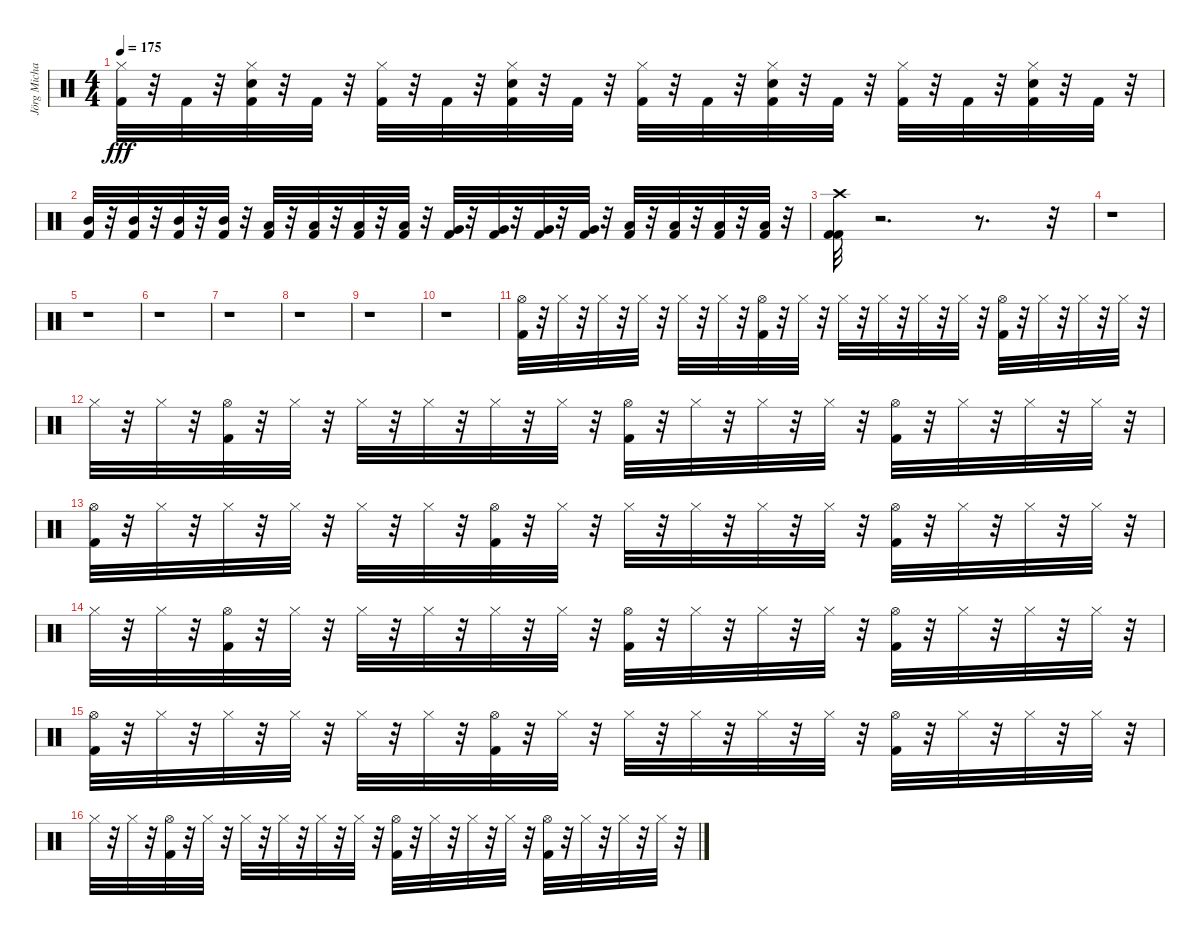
\track ("Jörg Michael " "Jörg Micha") {instrument percussion}
\staff {score}
\articulation defaults
\ts (4 4)
\tempo 175
\clef neutral
\ks c
("Hi-Hat (closed)" "Kick (hit) 2").32{dy fff} r.32 "Kick (hit) 2".32 r.32 ("Hi-Hat (closed)" "Snare (hit) 2" "Kick (hit) 2").32 r.32 "Kick (hit) 2".32 r.32 ("Hi-Hat (closed)" "Kick (hit) 2").32 r.32 "Kick (hit) 2".32 r.32 ("Hi-Hat (closed)" "Snare (hit) 2" "Kick (hit) 2").32 r.32 "Kick (hit) 2".32 r.32 ("Hi-Hat (closed)" "Kick (hit) 2").32 r.32 "Kick (hit) 2".32 r.32 ("Hi-Hat (closed)" "Snare (hit) 2" "Kick (hit) 2").32 r.32 "Kick (hit) 2".32 r.32 ("Hi-Hat (closed)" "Kick (hit) 2").32 r.32 "Kick (hit) 2".32 r.32 ("Hi-Hat (closed)" "Snare (hit) 2" "Kick (hit) 2").32 r.32 "Kick (hit) 2".32 r.32 |
("Mid Tom (hit)" "Kick (hit) 2").32 r.32 ("Mid Tom (hit)" "Kick (hit) 2").32 r.32 ("Mid Tom (hit)" "Kick (hit) 2").32 r.32 ("Mid Tom (hit)" "Kick (hit) 2").32 r.32 ("Low Tom (hit)" "Kick (hit) 2").32 r.32 ("Low Tom (hit)" "Kick (hit) 2").32 r.32 ("Low Tom (hit)" "Kick (hit) 2").32 r.32 ("Low Tom (hit)" "Kick (hit) 2").32 r.32 ("Very Low Tom (hit)" "Kick (hit) 2").32 r.32 ("Very Low Tom (hit)" "Kick (hit) 2").32 r.32 ("Very Low Tom (hit)" "Kick (hit) 2").32 r.32 ("Very Low Tom (hit)" "Kick (hit) 2").32 r.32 ("Low Floor Tom (hit)" "Kick (hit) 2").32 r.32 ("Low Floor Tom (hit)" "Kick (hit) 2").32 r.32 ("Low Floor Tom (hit)" "Kick (hit) 2").32 r.32 ("Low Floor Tom (hit)" "Kick (hit) 2").32 r.32 |
("Crash high (hit)" "Kick (hit) 2" "Kick (hit) 2").32 r.2{d} r.8{d} r.32 |
r.1 |
r.1 |
r.1 |
r.1 |
r.1 |
r.1 |
r.1 |
("Hi-Hat (open)" "Kick (hit) 2").32 r.32 "Hi-Hat (closed)".32 r.32 "Hi-Hat (closed)".32 r.32 "Hi-Hat (closed)".32 r.32 "Hi-Hat (closed)".32 r.32 "Hi-Hat (closed)".32 r.32 ("Hi-Hat (open)" "Kick (hit) 2").32 r.32 "Hi-Hat (closed)".32 r.32 "Hi-Hat (closed)".32 r.32 "Hi-Hat (closed)".32 r.32 "Hi-Hat (closed)".32 r.32 "Hi-Hat (closed)".32 r.32 ("Hi-Hat (open)" "Kick (hit) 2").32 r.32 "Hi-Hat (closed)".32 r.32 "Hi-Hat (closed)".32 r.32 "Hi-Hat (closed)".32 r.32 |
"Hi-Hat (closed)".32 r.32 "Hi-Hat (closed)".32 r.32 ("Hi-Hat (open)" "Kick (hit) 2").32 r.32 "Hi-Hat (closed)".32 r.32 "Hi-Hat (closed)".32 r.32 "Hi-Hat (closed)".32 r.32 "Hi-Hat (closed)".32 r.32 "Hi-Hat (closed)".32 r.32 ("Hi-Hat (open)" "Kick (hit) 2").32 r.32 "Hi-Hat (closed)".32 r.32 "Hi-Hat (closed)".32 r.32 "Hi-Hat (closed)".32 r.32 ("Hi-Hat (open)" "Kick (hit) 2").32 r.32 "Hi-Hat (closed)".32 r.32 "Hi-Hat (closed)".32 r.32 "Hi-Hat (closed)".32 r.32 |
("Hi-Hat (open)" "Kick (hit) 2").32 r.32 "Hi-Hat (closed)".32 r.32 "Hi-Hat (closed)".32 r.32 "Hi-Hat (closed)".32 r.32 "Hi-Hat (closed)".32 r.32 "Hi-Hat (closed)".32 r.32 ("Hi-Hat (open)" "Kick (hit) 2").32 r.32 "Hi-Hat (closed)".32 r.32 "Hi-Hat (closed)".32 r.32 "Hi-Hat (closed)".32 r.32 "Hi-Hat (closed)".32 r.32 "Hi-Hat (closed)".32 r.32 ("Hi-Hat (open)" "Kick (hit) 2").32 r.32 "Hi-Hat (closed)".32 r.32 "Hi-Hat (closed)".32 r.32 "Hi-Hat (closed)".32 r.32 |
"Hi-Hat (closed)".32 r.32 "Hi-Hat (closed)".32 r.32 ("Hi-Hat (open)" "Kick (hit) 2").32 r.32 "Hi-Hat (closed)".32 r.32 "Hi-Hat (closed)".32 r.32 "Hi-Hat (closed)".32 r.32 "Hi-Hat (closed)".32 r.32 "Hi-Hat (closed)".32 r.32 ("Hi-Hat (open)" "Kick (hit) 2").32 r.32 "Hi-Hat (closed)".32 r.32 "Hi-Hat (closed)".32 r.32 "Hi-Hat (closed)".32 r.32 ("Hi-Hat (open)" "Kick (hit) 2").32 r.32 "Hi-Hat (closed)".32 r.32 "Hi-Hat (closed)".32 r.32 "Hi-Hat (closed)".32 r.32 |
("Hi-Hat (open)" "Kick (hit) 2").32 r.32 "Hi-Hat (closed)".32 r.32 "Hi-Hat (closed)".32 r.32 "Hi-Hat (closed)".32 r.32 "Hi-Hat (closed)".32 r.32 "Hi-Hat (closed)".32 r.32 ("Hi-Hat (open)" "Kick (hit) 2").32 r.32 "Hi-Hat (closed)".32 r.32 "Hi-Hat (closed)".32 r.32 "Hi-Hat (closed)".32 r.32 "Hi-Hat (closed)".32 r.32 "Hi-Hat (closed)".32 r.32 ("Hi-Hat (open)" "Kick (hit) 2").32 r.32 "Hi-Hat (closed)".32 r.32 "Hi-Hat (closed)".32 r.32 "Hi-Hat (closed)".32 r.32 |
"Hi-Hat (closed)".32 r.32 "Hi-Hat (closed)".32 r.32 ("Hi-Hat (open)" "Kick (hit) 2").32 r.32 "Hi-Hat (closed)".32 r.32 "Hi-Hat (closed)".32 r.32 "Hi-Hat (closed)".32 r.32 "Hi-Hat (closed)".32 r.32 "Hi-Hat (closed)".32 r.32 ("Hi-Hat (open)" "Kick (hit) 2").32 r.32 "Hi-Hat (closed)".32 r.32 "Hi-Hat (closed)".32 r.32 "Hi-Hat (closed)".32 r.32 ("Hi-Hat (open)" "Kick (hit) 2").32 r.32 "Hi-Hat (closed)".32 r.32 "Hi-Hat (closed)".32 r.32 "Hi-Hat (closed)".32 r.32
